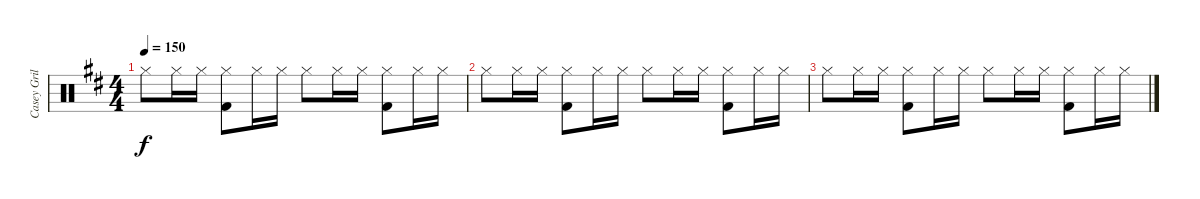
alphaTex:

\track ("Casey Grillo" "Casey Gril") {instrument percussion}
\staff {score}
\articulation defaults
\ts (4 4)
\tempo 150
\clef neutral
\ks bminor "Hi-Hat (closed)".8{dy f} "Hi-Hat (closed)".16 "Hi-Hat (closed)".16
("Hi-Hat (closed)" "Kick (hit) 2").8 "Hi-Hat (closed)".16 "Hi-Hat (closed)".16 "Hi-Hat (closed)".8 "Hi-Hat (closed)".16 "Hi-Hat (closed)".16 ("Hi-Hat (closed)" "Kick (hit) 2").8 "Hi-Hat (closed)".16 "Hi-Hat (closed)".16 |
"Hi-Hat (closed)".8 "Hi-Hat (closed)".16 "Hi-Hat (closed)".16 ("Hi-Hat (closed)" "Kick (hit) 2").8 "Hi-Hat (closed)".16 "Hi-Hat (closed)".16 "Hi-Hat (closed)".8 "Hi-Hat (closed)".16 "Hi-Hat (closed)".16 ("Hi-Hat (closed)" "Kick (hit) 2").8 "Hi-Hat (closed)".16 "Hi-Hat (closed)".16 |
"Hi-Hat (closed)".8 "Hi-Hat (closed)".16 "Hi-Hat (closed)".16 ("Hi-Hat (closed)" "Kick (hit) 2").8 "Hi-Hat (closed)".16 "Hi-Hat (closed)".16 "Hi-Hat (closed)".8 "Hi-Hat (closed)".16 "Hi-Hat (closed)".16 ("Hi-Hat (closed)" "Kick (hit) 2").8 "Hi-Hat (closed)".16 "Hi-Hat (closed)".16
